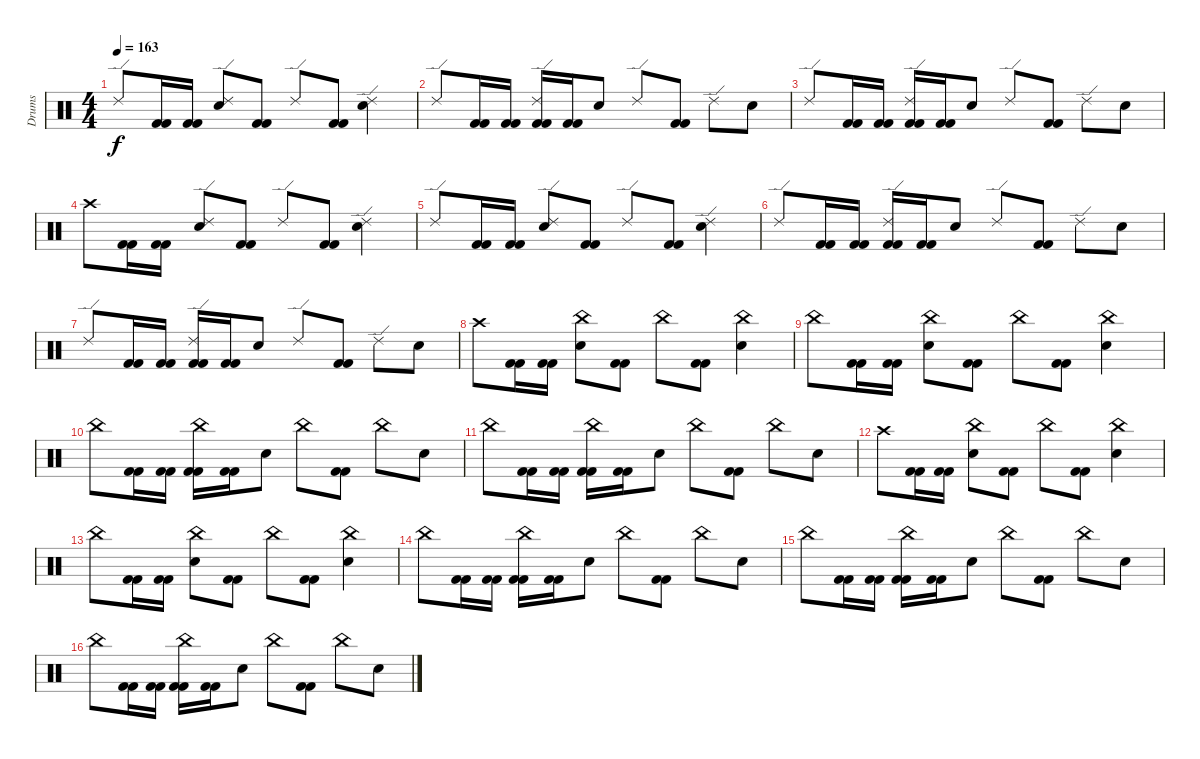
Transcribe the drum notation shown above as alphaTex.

\track ("Drums" "Drums") {instrument percussion}
\staff {score}
\articulation defaults
\ts (4 4)
\tempo 163
\clef neutral
\ks c "Ride (edge) 2".8{dy f}
("Kick (hit) 2" "Kick (hit) 2").16 ("Kick (hit) 2" "Kick (hit) 2").16 ("Ride (edge) 2" "Snare (hit) 2").8 ("Kick (hit) 2" "Kick (hit) 2").8 "Ride (edge) 2".8 ("Kick (hit) 2" "Kick (hit) 2").8 ("Ride (edge) 2" "Snare (hit) 2").4 |
"Ride (edge) 2".8 ("Kick (hit) 2" "Kick (hit) 2").16 ("Kick (hit) 2" "Kick (hit) 2").16 ("Ride (edge) 2" "Kick (hit) 2" "Kick (hit) 2").16 ("Kick (hit) 2" "Kick (hit) 2").16 "Snare (hit) 2".8 "Ride (edge) 2".8 ("Kick (hit) 2" "Kick (hit) 2").8 "Ride (edge) 2".8 "Snare (hit) 2".8 |
"Ride (edge) 2".8 ("Kick (hit) 2" "Kick (hit) 2").16 ("Kick (hit) 2" "Kick (hit) 2").16 ("Ride (edge) 2" "Kick (hit) 2" "Kick (hit) 2").16 ("Kick (hit) 2" "Kick (hit) 2").16 "Snare (hit) 2".8 "Ride (edge) 2".8 ("Kick (hit) 2" "Kick (hit) 2").8 "Ride (edge) 2".8 "Snare (hit) 2".8 |
"Crash high (hit)".8 ("Kick (hit) 2" "Kick (hit) 2").16 ("Kick (hit) 2" "Kick (hit) 2").16 ("Ride (edge) 2" "Snare (hit) 2").8 ("Kick (hit) 2" "Kick (hit) 2").8 "Ride (edge) 2".8 ("Kick (hit) 2" "Kick (hit) 2").8 ("Ride (edge) 2" "Snare (hit) 2").4 |
"Ride (edge) 2".8 ("Kick (hit) 2" "Kick (hit) 2").16 ("Kick (hit) 2" "Kick (hit) 2").16 ("Ride (edge) 2" "Snare (hit) 2").8 ("Kick (hit) 2" "Kick (hit) 2").8 "Ride (edge) 2".8 ("Kick (hit) 2" "Kick (hit) 2").8 ("Ride (edge) 2" "Snare (hit) 2").4 |
"Ride (edge) 2".8 ("Kick (hit) 2" "Kick (hit) 2").16 ("Kick (hit) 2" "Kick (hit) 2").16 ("Ride (edge) 2" "Kick (hit) 2" "Kick (hit) 2").16 ("Kick (hit) 2" "Kick (hit) 2").16 "Snare (hit) 2".8 "Ride (edge) 2".8 ("Kick (hit) 2" "Kick (hit) 2").8 "Ride (edge) 2".8 "Snare (hit) 2".8 |
"Ride (edge) 2".8 ("Kick (hit) 2" "Kick (hit) 2").16 ("Kick (hit) 2" "Kick (hit) 2").16 ("Ride (edge) 2" "Kick (hit) 2" "Kick (hit) 2").16 ("Kick (hit) 2" "Kick (hit) 2").16 "Snare (hit) 2".8 "Ride (edge) 2".8 ("Kick (hit) 2" "Kick (hit) 2").8 "Ride (edge) 2".8 "Snare (hit) 2".8 |
"Crash high (hit)".8 ("Kick (hit) 2" "Kick (hit) 2").16 ("Kick (hit) 2" "Kick (hit) 2").16 ("China (hit)" "Snare (hit) 2").8 ("Kick (hit) 2" "Kick (hit) 2").8 "China (hit)".8 ("Kick (hit) 2" "Kick (hit) 2").8 ("China (hit)" "Snare (hit) 2").4 |
"China (hit)".8 ("Kick (hit) 2" "Kick (hit) 2").16 ("Kick (hit) 2" "Kick (hit) 2").16 ("China (hit)" "Snare (hit) 2").8 ("Kick (hit) 2" "Kick (hit) 2").8 "China (hit)".8 ("Kick (hit) 2" "Kick (hit) 2").8 ("China (hit)" "Snare (hit) 2").4 |
"China (hit)".8 ("Kick (hit) 2" "Kick (hit) 2").16 ("Kick (hit) 2" "Kick (hit) 2").16 ("China (hit)" "Kick (hit) 2" "Kick (hit) 2").16 ("Kick (hit) 2" "Kick (hit) 2").16 "Snare (hit) 2".8 "China (hit)".8 ("Kick (hit) 2" "Kick (hit) 2").8 "China (hit)".8 "Snare (hit) 2".8 |
"China (hit)".8 ("Kick (hit) 2" "Kick (hit) 2").16 ("Kick (hit) 2" "Kick (hit) 2").16 ("China (hit)" "Kick (hit) 2" "Kick (hit) 2").16 ("Kick (hit) 2" "Kick (hit) 2").16 "Snare (hit) 2".8 "China (hit)".8 ("Kick (hit) 2" "Kick (hit) 2").8 "China (hit)".8 "Snare (hit) 2".8 |
"Crash high (hit)".8 ("Kick (hit) 2" "Kick (hit) 2").16 ("Kick (hit) 2" "Kick (hit) 2").16 ("China (hit)" "Snare (hit) 2").8 ("Kick (hit) 2" "Kick (hit) 2").8 "China (hit)".8 ("Kick (hit) 2" "Kick (hit) 2").8 ("China (hit)" "Snare (hit) 2").4 |
"China (hit)".8 ("Kick (hit) 2" "Kick (hit) 2").16 ("Kick (hit) 2" "Kick (hit) 2").16 ("China (hit)" "Snare (hit) 2").8 ("Kick (hit) 2" "Kick (hit) 2").8 "China (hit)".8 ("Kick (hit) 2" "Kick (hit) 2").8 ("China (hit)" "Snare (hit) 2").4 |
"China (hit)".8 ("Kick (hit) 2" "Kick (hit) 2").16 ("Kick (hit) 2" "Kick (hit) 2").16 ("China (hit)" "Kick (hit) 2" "Kick (hit) 2").16 ("Kick (hit) 2" "Kick (hit) 2").16 "Snare (hit) 2".8 "China (hit)".8 ("Kick (hit) 2" "Kick (hit) 2").8 "China (hit)".8 "Snare (hit) 2".8 |
"China (hit)".8 ("Kick (hit) 2" "Kick (hit) 2").16 ("Kick (hit) 2" "Kick (hit) 2").16 ("China (hit)" "Kick (hit) 2" "Kick (hit) 2").16 ("Kick (hit) 2" "Kick (hit) 2").16 "Snare (hit) 2".8 "China (hit)".8 ("Kick (hit) 2" "Kick (hit) 2").8 "China (hit)".8 "Snare (hit) 2".8 |
"China (hit)".8 ("Kick (hit) 2" "Kick (hit) 2").16 ("Kick (hit) 2" "Kick (hit) 2").16 ("China (hit)" "Kick (hit) 2" "Kick (hit) 2").16 ("Kick (hit) 2" "Kick (hit) 2").16 "Snare (hit) 2".8 "China (hit)".8 ("Kick (hit) 2" "Kick (hit) 2").8 "China (hit)".8 "Snare (hit) 2".8
